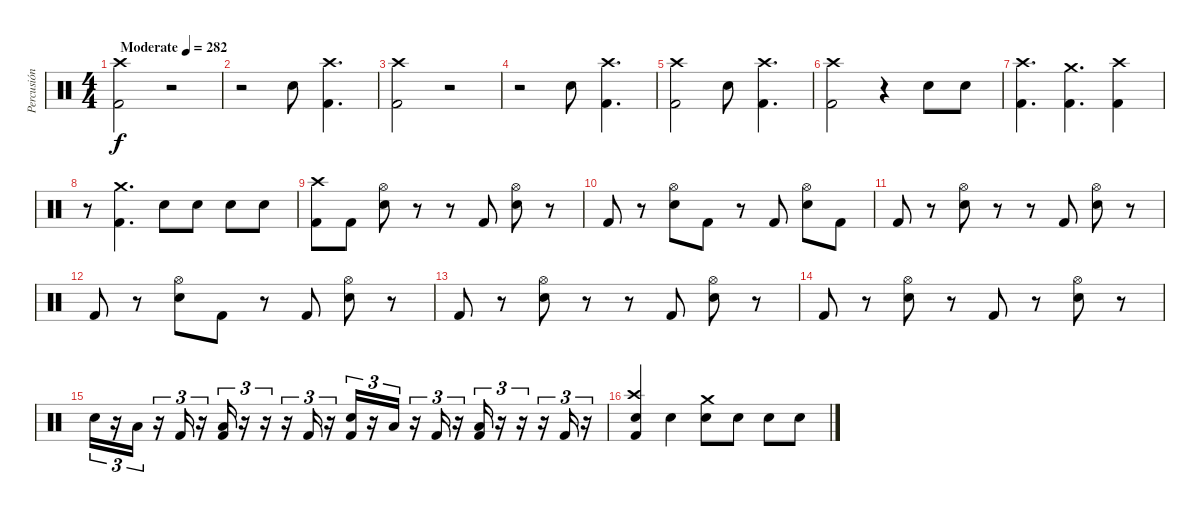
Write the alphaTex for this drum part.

\track ("Percusión" "Percusión") {instrument percussion}
\staff {score}
\articulation defaults
\ts (4 4)
\tempo (282 "Moderate")
\clef neutral
\ks c
("Kick (hit) 2" "Crash high (hit)").2{dy f} r.2 |
r.2 "Snare (hit) 2".8 ("Kick (hit) 2" "Crash high (hit)").4{d} |
("Kick (hit) 2" "Crash high (hit)").2 r.2 |
r.2 "Snare (hit) 2".8 ("Kick (hit) 2" "Crash high (hit)").4{d} |
("Kick (hit) 2" "Crash high (hit)").2 "Snare (hit) 2".8 ("Kick (hit) 2" "Crash high (hit)").4{d} |
("Kick (hit) 2" "Crash high (hit)").2 r.4 "Snare (hit) 2".8 "Snare (hit) 2".8 |
("Kick (hit) 2" "Crash high (hit)").4{d} ("Kick (hit) 2" "Crash medium (hit)").4{d} ("Kick (hit) 2" "Crash high (hit)").4 |
r.8 ("Kick (hit) 2" "Crash medium (hit)").4{d} "Snare (hit) 2".8 "Snare (hit) 2".8 "Snare (hit) 2".8 "Snare (hit) 2".8 |
("Kick (hit) 2" "Crash high (hit)").8 "Kick (hit) 2".8 ("Snare (hit) 2" "Hi-Hat (open)").8 r.8 r.8 "Kick (hit) 2".8 ("Snare (hit) 2" "Hi-Hat (open)").8 r.8 |
"Kick (hit) 2".8 r.8 ("Snare (hit) 2" "Hi-Hat (open)").8 "Kick (hit) 2".8 r.8 "Kick (hit) 2".8 ("Snare (hit) 2" "Hi-Hat (open)").8 "Kick (hit) 2".8 |
"Kick (hit) 2".8 r.8 ("Snare (hit) 2" "Hi-Hat (open)").8 r.8 r.8 "Kick (hit) 2".8 ("Snare (hit) 2" "Hi-Hat (open)").8 r.8 |
"Kick (hit) 2".8 r.8 ("Snare (hit) 2" "Hi-Hat (open)").8 "Kick (hit) 2".8 r.8 "Kick (hit) 2".8 ("Snare (hit) 2" "Hi-Hat (open)").8 r.8 |
"Kick (hit) 2".8 r.8 ("Snare (hit) 2" "Hi-Hat (open)").8 r.8 r.8 "Kick (hit) 2".8 ("Snare (hit) 2" "Hi-Hat (open)").8 r.8 |
"Kick (hit) 2".8 r.8 ("Snare (hit) 2" "Hi-Hat (open)").8 r.8 "Kick (hit) 2".8 r.8 ("Snare (hit) 2" "Hi-Hat (open)").8 r.8 |
"Snare (hit) 2".16{tu (3 2)} r.16{tu (3 2)} "Low Tom (hit)".16{tu (3 2)} r.16{tu (3 2)} "Kick (hit) 2".16{tu (3 2)} r.16{tu (3 2)} ("Kick (hit) 2" "Low Tom (hit)").16{tu (3 2)} r.16{tu (3 2)} r.16{tu (3 2)} r.16{tu (3 2)} "Kick (hit) 2".16{tu (3 2)} r.16{tu (3 2)} ("Kick (hit) 2" "Snare (hit) 2").16{tu (3 2)} r.16{tu (3 2)} "Low Tom (hit)".16{tu (3 2)} r.16{tu (3 2)} "Kick (hit) 2".16{tu (3 2)} r.16{tu (3 2)} ("Kick (hit) 2" "Low Tom (hit)").16{tu (3 2)} r.16{tu (3 2)} r.16{tu (3 2)} r.16{tu (3 2)} "Kick (hit) 2".16{tu (3 2)} r.16{tu (3 2)} |
("Kick (hit) 2" "Snare (hit) 2" "Crash high (hit)").4 "Snare (hit) 2".4 ("Snare (hit) 2" "Crash medium (hit)").8 "Snare (hit) 2".8 "Snare (hit) 2".8 "Snare (hit) 2".8
